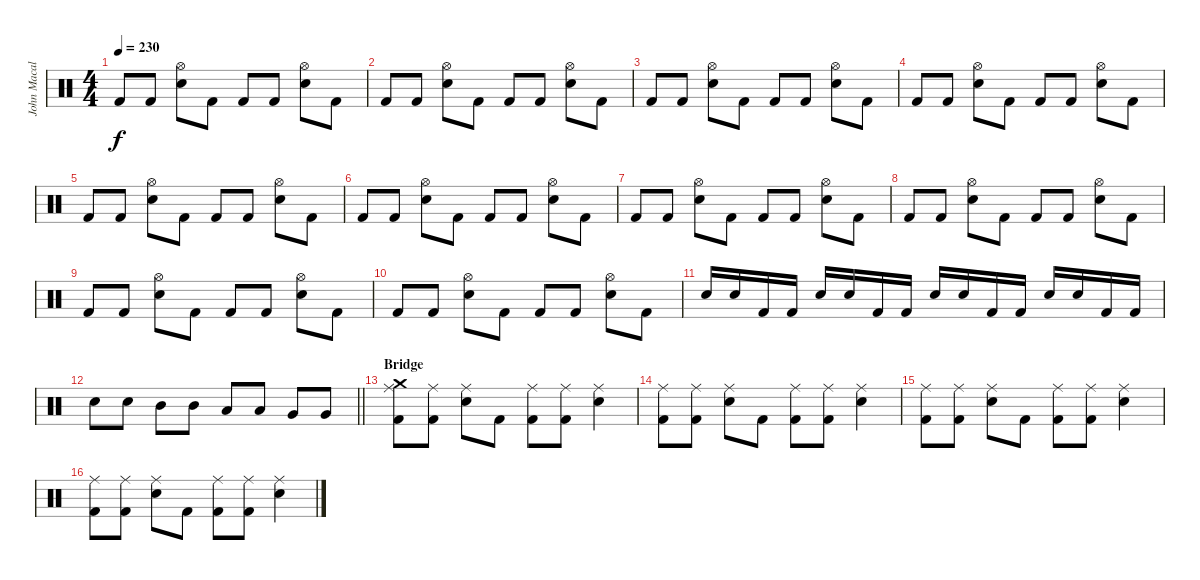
\track ("John Macaluso" "John Macal") {instrument percussion}
\staff {score}
\articulation defaults
\ts (4 4)
\tempo 230
\clef neutral
\ks c "Kick (hit) 2".8{dy f} "Kick (hit) 2".8
("Hi-Hat (open)" "Snare (hit) 2").8 "Kick (hit) 2".8 "Kick (hit) 2".8 "Kick (hit) 2".8 ("Hi-Hat (open)" "Snare (hit) 2").8 "Kick (hit) 2".8 |
"Kick (hit) 2".8 "Kick (hit) 2".8 ("Hi-Hat (open)" "Snare (hit) 2").8 "Kick (hit) 2".8 "Kick (hit) 2".8 "Kick (hit) 2".8 ("Hi-Hat (open)" "Snare (hit) 2").8 "Kick (hit) 2".8 |
"Kick (hit) 2".8 "Kick (hit) 2".8 ("Hi-Hat (open)" "Snare (hit) 2").8 "Kick (hit) 2".8 "Kick (hit) 2".8 "Kick (hit) 2".8 ("Hi-Hat (open)" "Snare (hit) 2").8 "Kick (hit) 2".8 |
"Kick (hit) 2".8 "Kick (hit) 2".8 ("Hi-Hat (open)" "Snare (hit) 2").8 "Kick (hit) 2".8 "Kick (hit) 2".8 "Kick (hit) 2".8 ("Hi-Hat (open)" "Snare (hit) 2").8 "Kick (hit) 2".8 |
"Kick (hit) 2".8 "Kick (hit) 2".8 ("Hi-Hat (open)" "Snare (hit) 2").8 "Kick (hit) 2".8 "Kick (hit) 2".8 "Kick (hit) 2".8 ("Hi-Hat (open)" "Snare (hit) 2").8 "Kick (hit) 2".8 |
"Kick (hit) 2".8 "Kick (hit) 2".8 ("Hi-Hat (open)" "Snare (hit) 2").8 "Kick (hit) 2".8 "Kick (hit) 2".8 "Kick (hit) 2".8 ("Hi-Hat (open)" "Snare (hit) 2").8 "Kick (hit) 2".8 |
"Kick (hit) 2".8 "Kick (hit) 2".8 ("Hi-Hat (open)" "Snare (hit) 2").8 "Kick (hit) 2".8 "Kick (hit) 2".8 "Kick (hit) 2".8 ("Hi-Hat (open)" "Snare (hit) 2").8 "Kick (hit) 2".8 |
"Kick (hit) 2".8 "Kick (hit) 2".8 ("Hi-Hat (open)" "Snare (hit) 2").8 "Kick (hit) 2".8 "Kick (hit) 2".8 "Kick (hit) 2".8 ("Hi-Hat (open)" "Snare (hit) 2").8 "Kick (hit) 2".8 |
"Kick (hit) 2".8 "Kick (hit) 2".8 ("Hi-Hat (open)" "Snare (hit) 2").8 "Kick (hit) 2".8 "Kick (hit) 2".8 "Kick (hit) 2".8 ("Hi-Hat (open)" "Snare (hit) 2").8 "Kick (hit) 2".8 |
"Kick (hit) 2".8 "Kick (hit) 2".8 ("Hi-Hat (open)" "Snare (hit) 2").8 "Kick (hit) 2".8 "Kick (hit) 2".8 "Kick (hit) 2".8 ("Hi-Hat (open)" "Snare (hit) 2").8 "Kick (hit) 2".8 |
"Snare (hit) 2".16 "Snare (hit) 2".16 "Kick (hit) 2".16 "Kick (hit) 2".16 "Snare (hit) 2".16 "Snare (hit) 2".16 "Kick (hit) 2".16 "Kick (hit) 2".16 "Snare (hit) 2".16 "Snare (hit) 2".16 "Kick (hit) 2".16 "Kick (hit) 2".16 "Snare (hit) 2".16 "Snare (hit) 2".16 "Kick (hit) 2".16 "Kick (hit) 2".16 |
\barLineRight lightlight "Snare (hit) 2".8 "Snare (hit) 2".8 "Mid Tom (hit)".8 "Mid Tom (hit)".8 "Low Tom (hit)".8 "Low Tom (hit)".8 "Very Low Tom (hit)".8 "Very Low Tom (hit)".8
|
\section ("" "Bridge")
("Crash medium (hit)" "Ride (middle)" "Kick (hit) 2").8 ("Ride (middle)" "Kick (hit) 2").8 ("Ride (middle)" "Snare (hit) 2").8 "Kick (hit) 2".8 ("Ride (middle)" "Kick (hit) 2").8 ("Ride (middle)" "Kick (hit) 2").8 ("Ride (middle)" "Snare (hit) 2").4 |
("Ride (middle)" "Kick (hit) 2").8 ("Ride (middle)" "Kick (hit) 2").8 ("Ride (middle)" "Snare (hit) 2").8 "Kick (hit) 2".8 ("Ride (middle)" "Kick (hit) 2").8 ("Ride (middle)" "Kick (hit) 2").8 ("Ride (middle)" "Snare (hit) 2").4 |
("Ride (middle)" "Kick (hit) 2").8 ("Ride (middle)" "Kick (hit) 2").8 ("Ride (middle)" "Snare (hit) 2").8 "Kick (hit) 2".8 ("Ride (middle)" "Kick (hit) 2").8 ("Ride (middle)" "Kick (hit) 2").8 ("Ride (middle)" "Snare (hit) 2").4 |
("Ride (middle)" "Kick (hit) 2").8 ("Ride (middle)" "Kick (hit) 2").8 ("Ride (middle)" "Snare (hit) 2").8 "Kick (hit) 2".8 ("Ride (middle)" "Kick (hit) 2").8 ("Ride (middle)" "Kick (hit) 2").8 ("Ride (middle)" "Snare (hit) 2").4
